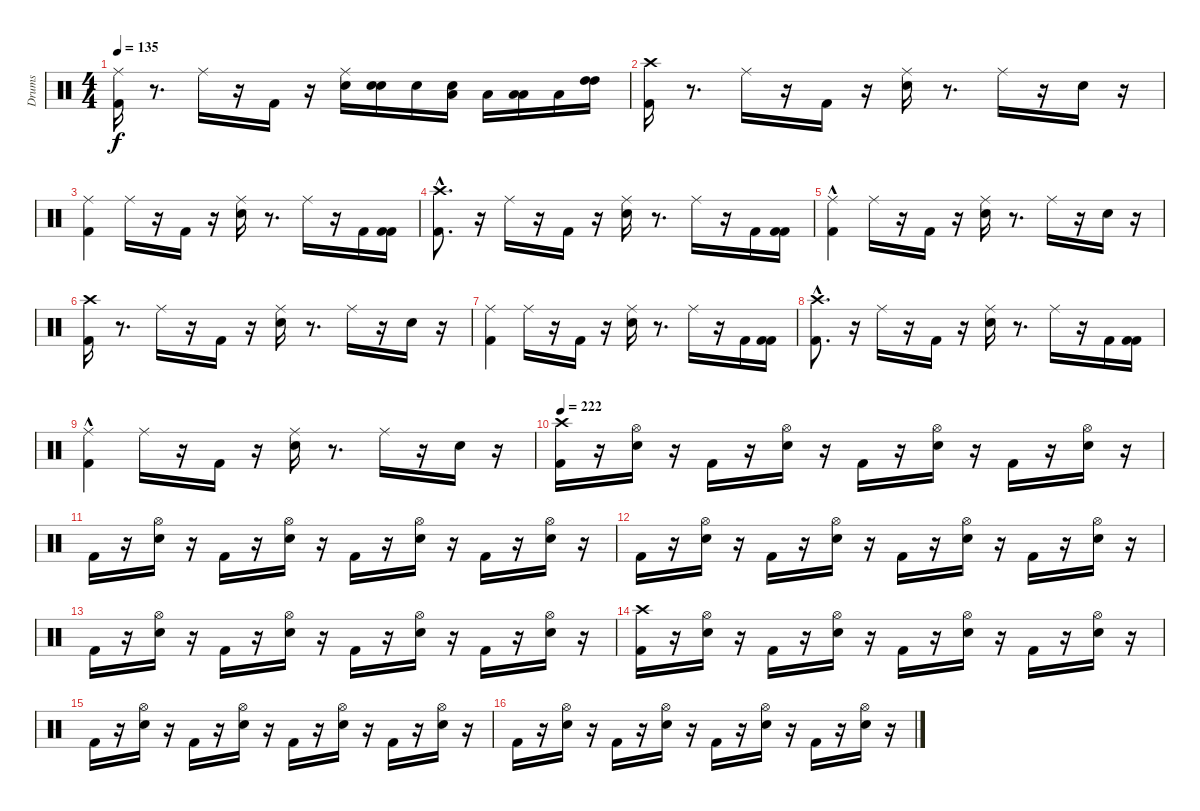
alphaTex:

\track ("Drums" "Drums") {instrument percussion}
\staff {score}
\articulation defaults
\ts (4 4)
\tempo 135
\clef neutral
\ks c
("Kick (hit) 2" "Ride (middle)").16{dy f} r.8{d} "Ride (middle)".16 r.16 "Kick (hit) 2".16 r.16 ("Snare (hit) 2" "Ride (middle)").16 ("Snare (hit) 2" "Snare (hit) 2").16 "Snare (hit) 2".16 ("Low Tom (hit)" "Snare (hit) 2").16 "Low Tom (hit)".16 ("Low Tom (hit)" "Low Tom (hit)").16 "Low Tom (hit)".16 ("High Tom (hit)" "High Tom (hit)").16 |
("Kick (hit) 2" "Crash high (hit)").16 r.8{d} "Ride (middle)".16 r.16 "Kick (hit) 2".16 r.16 ("Snare (hit) 2" "Ride (middle)").16 r.8{d} "Ride (middle)".16 r.16 "Snare (hit) 2".16 r.16 |
("Kick (hit) 2" "Ride (middle)").4 "Ride (middle)".16 r.16 "Kick (hit) 2".16 r.16 ("Snare (hit) 2" "Ride (middle)").16 r.8{d} "Ride (middle)".16 r.16 "Kick (hit) 2".16 ("Kick (hit) 2" "Kick (hit) 2").16 |
("Kick (hit) 2"{hac} "Crash high (hit)").8{d} r.16 "Ride (middle)".16 r.16 "Kick (hit) 2".16 r.16 ("Snare (hit) 2" "Ride (middle)").16 r.8{d} "Ride (middle)".16 r.16 "Kick (hit) 2".16 ("Kick (hit) 2" "Kick (hit) 2").16 |
("Kick (hit) 2"{hac} "Ride (middle)").4 "Ride (middle)".16 r.16 "Kick (hit) 2".16 r.16 ("Snare (hit) 2" "Ride (middle)").16 r.8{d} "Ride (middle)".16 r.16 "Snare (hit) 2".16 r.16 |
("Kick (hit) 2" "Crash high (hit)").16 r.8{d} "Ride (middle)".16 r.16 "Kick (hit) 2".16 r.16 ("Snare (hit) 2" "Ride (middle)").16 r.8{d} "Ride (middle)".16 r.16 "Snare (hit) 2".16 r.16 |
("Kick (hit) 2" "Ride (middle)").4 "Ride (middle)".16 r.16 "Kick (hit) 2".16 r.16 ("Snare (hit) 2" "Ride (middle)").16 r.8{d} "Ride (middle)".16 r.16 "Kick (hit) 2".16 ("Kick (hit) 2" "Kick (hit) 2").16 |
("Kick (hit) 2"{hac} "Crash high (hit)").8{d} r.16 "Ride (middle)".16 r.16 "Kick (hit) 2".16 r.16 ("Snare (hit) 2" "Ride (middle)").16 r.8{d} "Ride (middle)".16 r.16 "Kick (hit) 2".16 ("Kick (hit) 2" "Kick (hit) 2").16 |
("Kick (hit) 2"{hac} "Ride (middle)").4 "Ride (middle)".16 r.16 "Kick (hit) 2".16 r.16 ("Snare (hit) 2" "Ride (middle)").16 r.8{d} "Ride (middle)".16 r.16 "Snare (hit) 2".16 r.16 |
\tempo 222
("Kick (hit) 2" "Crash high (hit)").16 r.16 ("Snare (hit) 2" "Hi-Hat (open)").16 r.16 "Kick (hit) 2".16 r.16 ("Snare (hit) 2" "Hi-Hat (open)").16 r.16 "Kick (hit) 2".16 r.16 ("Snare (hit) 2" "Hi-Hat (open)").16 r.16 "Kick (hit) 2".16 r.16 ("Snare (hit) 2" "Hi-Hat (open)").16 r.16 |
"Kick (hit) 2".16 r.16 ("Snare (hit) 2" "Hi-Hat (open)").16 r.16 "Kick (hit) 2".16 r.16 ("Snare (hit) 2" "Hi-Hat (open)").16 r.16 "Kick (hit) 2".16 r.16 ("Snare (hit) 2" "Hi-Hat (open)").16 r.16 "Kick (hit) 2".16 r.16 ("Snare (hit) 2" "Hi-Hat (open)").16 r.16 |
"Kick (hit) 2".16 r.16 ("Snare (hit) 2" "Hi-Hat (open)").16 r.16 "Kick (hit) 2".16 r.16 ("Snare (hit) 2" "Hi-Hat (open)").16 r.16 "Kick (hit) 2".16 r.16 ("Snare (hit) 2" "Hi-Hat (open)").16 r.16 "Kick (hit) 2".16 r.16 ("Snare (hit) 2" "Hi-Hat (open)").16 r.16 |
"Kick (hit) 2".16 r.16 ("Snare (hit) 2" "Hi-Hat (open)").16 r.16 "Kick (hit) 2".16 r.16 ("Snare (hit) 2" "Hi-Hat (open)").16 r.16 "Kick (hit) 2".16 r.16 ("Snare (hit) 2" "Hi-Hat (open)").16 r.16 "Kick (hit) 2".16 r.16 ("Snare (hit) 2" "Hi-Hat (open)").16 r.16 |
("Kick (hit) 2" "Crash high (hit)").16 r.16 ("Snare (hit) 2" "Hi-Hat (open)").16 r.16 "Kick (hit) 2".16 r.16 ("Snare (hit) 2" "Hi-Hat (open)").16 r.16 "Kick (hit) 2".16 r.16 ("Snare (hit) 2" "Hi-Hat (open)").16 r.16 "Kick (hit) 2".16 r.16 ("Snare (hit) 2" "Hi-Hat (open)").16 r.16 |
"Kick (hit) 2".16 r.16 ("Snare (hit) 2" "Hi-Hat (open)").16 r.16 "Kick (hit) 2".16 r.16 ("Snare (hit) 2" "Hi-Hat (open)").16 r.16 "Kick (hit) 2".16 r.16 ("Snare (hit) 2" "Hi-Hat (open)").16 r.16 "Kick (hit) 2".16 r.16 ("Snare (hit) 2" "Hi-Hat (open)").16 r.16 |
"Kick (hit) 2".16 r.16 ("Snare (hit) 2" "Hi-Hat (open)").16 r.16 "Kick (hit) 2".16 r.16 ("Snare (hit) 2" "Hi-Hat (open)").16 r.16 "Kick (hit) 2".16 r.16 ("Snare (hit) 2" "Hi-Hat (open)").16 r.16 "Kick (hit) 2".16 r.16 ("Snare (hit) 2" "Hi-Hat (open)").16 r.16
